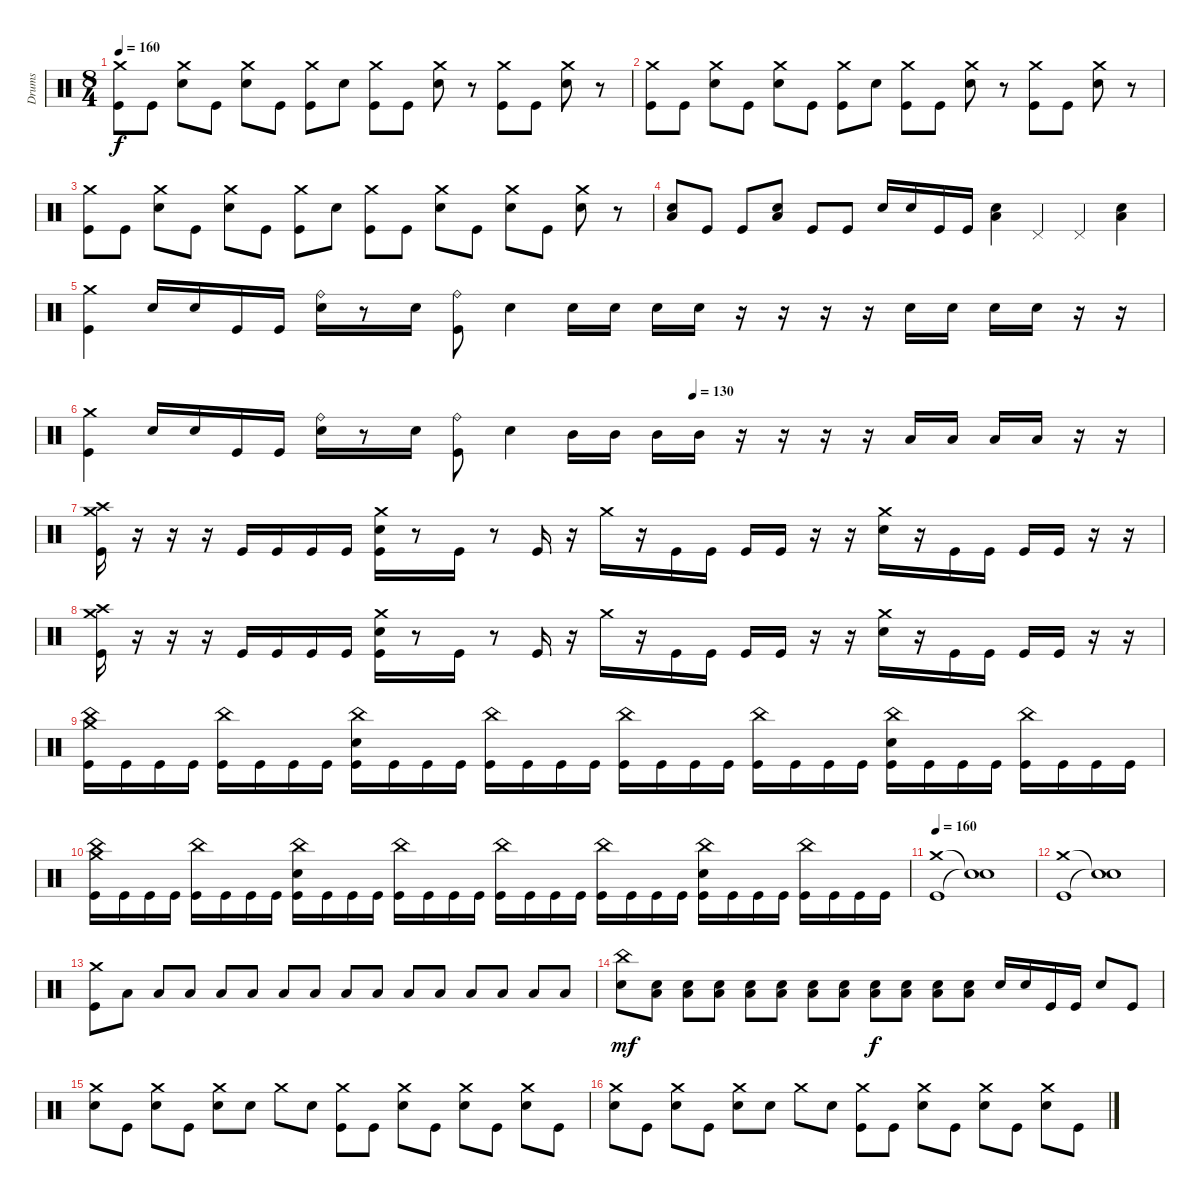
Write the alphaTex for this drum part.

\track ("Drums" "Drums") {instrument percussion}
\staff {score}
\articulation defaults
\ts (8 4)
\tempo 160
\clef neutral
\ks c
("Crash medium (hit)" "Kick (hit)").8{dy f} "Kick (hit)".8 ("Crash medium (hit)" "Snare (hit) 2").8 "Kick (hit)".8 ("Crash medium (hit)" "Snare (hit) 2").8 "Kick (hit)".8 ("Crash medium (hit)" "Kick (hit)").8 "Snare (hit) 2".8 ("Crash medium (hit)" "Kick (hit)").8 "Kick (hit)".8 ("Crash medium (hit)" "Snare (hit) 2").8 r.8 ("Crash medium (hit)" "Kick (hit)").8 "Kick (hit)".8 ("Crash medium (hit)" "Snare (hit) 2").8 r.8 |
("Crash medium (hit)" "Kick (hit)").8 "Kick (hit)".8 ("Crash medium (hit)" "Snare (hit) 2").8 "Kick (hit)".8 ("Crash medium (hit)" "Snare (hit) 2").8 "Kick (hit)".8 ("Crash medium (hit)" "Kick (hit)").8 "Snare (hit) 2".8 ("Crash medium (hit)" "Kick (hit)").8 "Kick (hit)".8 ("Crash medium (hit)" "Snare (hit) 2").8 r.8 ("Crash medium (hit)" "Kick (hit)").8 "Kick (hit)".8 ("Crash medium (hit)" "Snare (hit) 2").8 r.8 |
("Crash medium (hit)" "Kick (hit)").8 "Kick (hit)".8 ("Crash medium (hit)" "Snare (hit) 2").8 "Kick (hit)".8 ("Crash medium (hit)" "Snare (hit) 2").8 "Kick (hit)".8 ("Crash medium (hit)" "Kick (hit)").8 "Snare (hit) 2".8 ("Crash medium (hit)" "Kick (hit)").8 "Kick (hit)".8 ("Crash medium (hit)" "Snare (hit) 2").8 "Kick (hit)".8 ("Crash medium (hit)" "Snare (hit) 2").8 "Kick (hit)".8 ("Crash medium (hit)" "Snare (hit) 2").8 r.8 |
("Low Floor Tom (hit)" "Snare (hit) 2").8 "Kick (hit)".8 "Kick (hit)".8 ("Low Floor Tom (hit)" "Snare (hit) 2").8 "Kick (hit)".8 "Kick (hit)".8 "Snare (hit) 2".16 "Snare (hit) 2".16 "Kick (hit)".16 "Kick (hit)".16 ("Low Floor Tom (hit)" "Snare (hit) 2").4 "Pedal Hi-Hat (hit)".4 "Pedal Hi-Hat (hit)".4 ("Low Floor Tom (hit)" "Snare (hit) 2").4 |
("Crash medium (hit)" "Kick (hit)").4 "Snare (hit) 2".16 "Snare (hit) 2".16 "Kick (hit)".16 "Kick (hit)".16 ("Ride (bell)" "Snare (hit) 2").16 r.8 "Snare (hit) 2".16 ("Ride (bell)" "Kick (hit)").8 "Snare (hit) 2".4 "Snare (hit) 2".16 "Snare (hit) 2".16 "Snare (hit) 2".16 "Snare (hit) 2".16 r.16 r.16 r.16 r.16 "Snare (hit) 2".16 "Snare (hit) 2".16 "Snare (hit) 2".16 "Snare (hit) 2".16 r.16 r.16 |
\tempo (140 0.5625)
\tempo (130 0.5625)
("Crash medium (hit)" "Kick (hit)").4 "Snare (hit) 2".16 "Snare (hit) 2".16 "Kick (hit)".16 "Kick (hit)".16 ("Ride (bell)" "Snare (hit) 2").16 r.8 "Snare (hit) 2".16 ("Ride (bell)" "Kick (hit)").8 "Snare (hit) 2".4 "Mid Tom (hit)".16 "Mid Tom (hit)".16 "Mid Tom (hit)".16 "Mid Tom (hit)".16 r.16 r.16 r.16 r.16 "Low Floor Tom (hit)".16 "Low Floor Tom (hit)".16 "Low Floor Tom (hit)".16 "Low Floor Tom (hit)".16 r.16 r.16 |
("Crash high (hit)" "Crash medium (hit)" "Kick (hit)").16 r.16 r.16 r.16 "Kick (hit)".16 "Kick (hit)".16 "Kick (hit)".16 "Kick (hit)".16 ("Crash medium (hit)" "Snare (hit) 2" "Kick (hit)").16 r.8 "Kick (hit)".16 r.8 "Kick (hit)".16 r.16 "Crash medium (hit)".16 r.16 "Kick (hit)".16 "Kick (hit)".16 "Kick (hit)".16 "Kick (hit)".16 r.16 r.16 ("Crash medium (hit)" "Snare (hit) 2").16 r.16 "Kick (hit)".16 "Kick (hit)".16 "Kick (hit)".16 "Kick (hit)".16 r.16 r.16 |
("Crash medium (hit)" "Crash high (hit)" "Kick (hit)").16 r.16 r.16 r.16 "Kick (hit)".16 "Kick (hit)".16 "Kick (hit)".16 "Kick (hit)".16 ("Crash medium (hit)" "Snare (hit) 2" "Kick (hit)").16 r.8 "Kick (hit)".16 r.8 "Kick (hit)".16 r.16 "Crash medium (hit)".16 r.16 "Kick (hit)".16 "Kick (hit)".16 "Kick (hit)".16 "Kick (hit)".16 r.16 r.16 ("Crash medium (hit)" "Snare (hit) 2").16 r.16 "Kick (hit)".16 "Kick (hit)".16 "Kick (hit)".16 "Kick (hit)".16 r.16 r.16 |
("Crash medium (hit)" "China (hit)" "Kick (hit)").16 "Kick (hit)".16 "Kick (hit)".16 "Kick (hit)".16 ("China (hit)" "Kick (hit)").16 "Kick (hit)".16 "Kick (hit)".16 "Kick (hit)".16 ("China (hit)" "Snare (hit) 2" "Kick (hit)").16 "Kick (hit)".16 "Kick (hit)".16 "Kick (hit)".16 ("China (hit)" "Kick (hit)").16 "Kick (hit)".16 "Kick (hit)".16 "Kick (hit)".16 ("China (hit)" "Kick (hit)").16 "Kick (hit)".16 "Kick (hit)".16 "Kick (hit)".16 ("China (hit)" "Kick (hit)").16 "Kick (hit)".16 "Kick (hit)".16 "Kick (hit)".16 ("China (hit)" "Snare (hit) 2" "Kick (hit)").16 "Kick (hit)".16 "Kick (hit)".16 "Kick (hit)".16 ("China (hit)" "Kick (hit)").16 "Kick (hit)".16 "Kick (hit)".16 "Kick (hit)".16 |
("Crash medium (hit)" "China (hit)" "Kick (hit)").16 "Kick (hit)".16 "Kick (hit)".16 "Kick (hit)".16 ("China (hit)" "Kick (hit)").16 "Kick (hit)".16 "Kick (hit)".16 "Kick (hit)".16 ("China (hit)" "Snare (hit) 2" "Kick (hit)").16 "Kick (hit)".16 "Kick (hit)".16 "Kick (hit)".16 ("China (hit)" "Kick (hit)").16 "Kick (hit)".16 "Kick (hit)".16 "Kick (hit)".16 ("China (hit)" "Kick (hit)").16 "Kick (hit)".16 "Kick (hit)".16 "Kick (hit)".16 ("China (hit)" "Kick (hit)").16 "Kick (hit)".16 "Kick (hit)".16 "Kick (hit)".16 ("China (hit)" "Snare (hit) 2" "Kick (hit)").16 "Kick (hit)".16 "Kick (hit)".16 "Kick (hit)".16 ("China (hit)" "Kick (hit)").16 "Kick (hit)".16 "Kick (hit)".16 "Kick (hit)".16 |
\tempo 170
\tempo 160
("Crash medium (hit)" "Kick (hit)").1 ("Snare (hit)"{t} "Snare (hit)"{t}).1 |
("Crash medium (hit)" "Kick (hit)").1 ("Snare (hit)"{t} "Snare (hit)"{t}).1 |
("Crash medium (hit)" "Kick (hit)").8 "Low Floor Tom (hit)".8 "Low Floor Tom (hit)".8 "Low Floor Tom (hit)".8 "Low Floor Tom (hit)".8 "Low Floor Tom (hit)".8 "Low Floor Tom (hit)".8 "Low Floor Tom (hit)".8 "Low Floor Tom (hit)".8 "Low Floor Tom (hit)".8 "Low Floor Tom (hit)".8 "Low Floor Tom (hit)".8 "Low Floor Tom (hit)".8 "Low Floor Tom (hit)".8 "Low Floor Tom (hit)".8 "Low Floor Tom (hit)".8 |
("Snare (hit) 2" "China (hit)").8{dy mf} ("Snare (hit) 2" "Low Floor Tom (hit)").8 ("Snare (hit) 2" "Low Floor Tom (hit)").8 ("Snare (hit) 2" "Low Floor Tom (hit)").8 ("Snare (hit) 2" "Low Floor Tom (hit)").8 ("Snare (hit) 2" "Low Floor Tom (hit)").8 ("Snare (hit) 2" "Low Floor Tom (hit)").8 ("Snare (hit) 2" "Low Floor Tom (hit)").8 ("Snare (hit) 2" "Low Floor Tom (hit)").8{dy f} ("Snare (hit) 2" "Low Floor Tom (hit)").8 ("Snare (hit) 2" "Low Floor Tom (hit)").8 ("Snare (hit) 2" "Low Floor Tom (hit)").8 "Snare (hit) 2".16 "Snare (hit) 2".16 "Kick (hit)".16 "Kick (hit)".16 "Snare (hit) 2".8 "Kick (hit)".8 |
("Crash medium (hit)" "Snare (hit) 2").8 "Kick (hit)".8 ("Crash medium (hit)" "Snare (hit) 2").8 "Kick (hit)".8 ("Crash medium (hit)" "Snare (hit) 2").8 "Snare (hit) 2".8 "Crash medium (hit)".8 "Snare (hit) 2".8 ("Crash medium (hit)" "Kick (hit)").8 "Kick (hit)".8 ("Crash medium (hit)" "Snare (hit) 2").8 "Kick (hit)".8 ("Crash medium (hit)" "Snare (hit) 2").8 "Kick (hit)".8 ("Crash medium (hit)" "Snare (hit) 2").8 "Kick (hit)".8 |
("Crash medium (hit)" "Snare (hit) 2").8 "Kick (hit)".8 ("Crash medium (hit)" "Snare (hit) 2").8 "Kick (hit)".8 ("Crash medium (hit)" "Snare (hit) 2").8 "Snare (hit) 2".8 "Crash medium (hit)".8 "Snare (hit) 2".8 ("Crash medium (hit)" "Kick (hit)").8 "Kick (hit)".8 ("Crash medium (hit)" "Snare (hit) 2").8 "Kick (hit)".8 ("Crash medium (hit)" "Snare (hit) 2").8 "Kick (hit)".8 ("Crash medium (hit)" "Snare (hit) 2").8 "Kick (hit)".8
